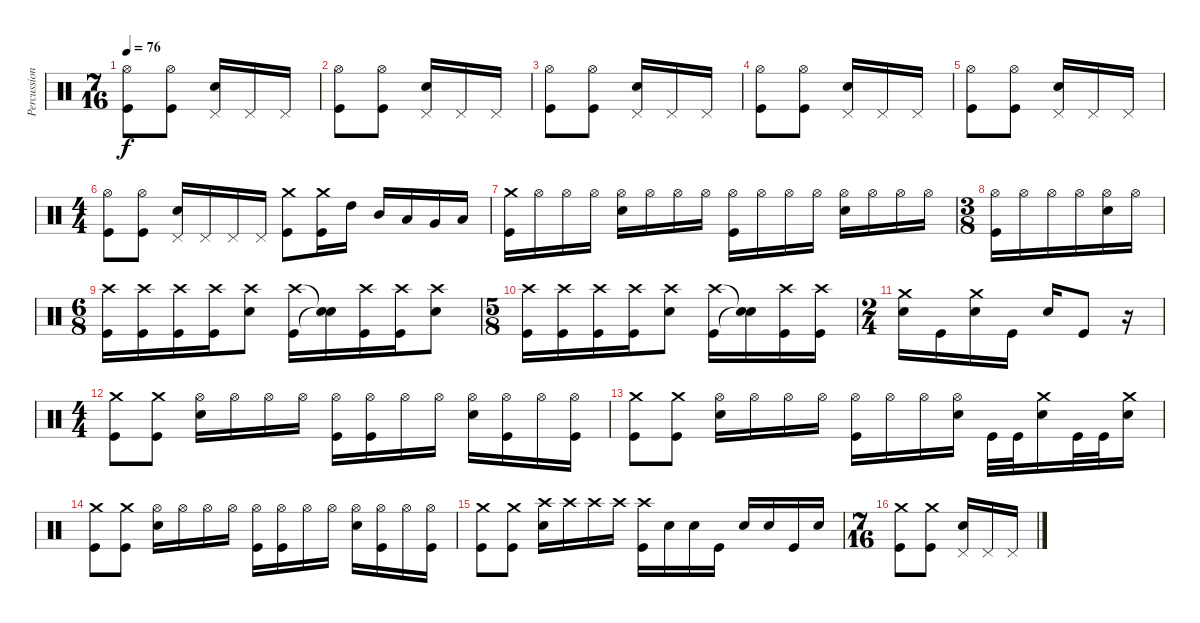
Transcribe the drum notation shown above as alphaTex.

\track ("Percussion" "Percussion") {instrument percussion}
\staff {score}
\articulation defaults
\ts (7 16)
\tempo 76
\clef neutral
\ks c
("Hi-Hat (open)" "Kick (hit)").8{dy f} ("Hi-Hat (open)" "Kick (hit)").8 ("Pedal Hi-Hat (hit)" "Snare (hit) 2").16 "Pedal Hi-Hat (hit)".16 "Pedal Hi-Hat (hit)".16 |
("Hi-Hat (open)" "Kick (hit)").8 ("Hi-Hat (open)" "Kick (hit)").8 ("Pedal Hi-Hat (hit)" "Snare (hit) 2").16 "Pedal Hi-Hat (hit)".16 "Pedal Hi-Hat (hit)".16 |
("Hi-Hat (open)" "Kick (hit)").8 ("Hi-Hat (open)" "Kick (hit)").8 ("Pedal Hi-Hat (hit)" "Snare (hit) 2").16 "Pedal Hi-Hat (hit)".16 "Pedal Hi-Hat (hit)".16 |
("Hi-Hat (open)" "Kick (hit)").8 ("Hi-Hat (open)" "Kick (hit)").8 ("Pedal Hi-Hat (hit)" "Snare (hit) 2").16 "Pedal Hi-Hat (hit)".16 "Pedal Hi-Hat (hit)".16 |
("Hi-Hat (open)" "Kick (hit)").8 ("Hi-Hat (open)" "Kick (hit)").8 ("Pedal Hi-Hat (hit)" "Snare (hit) 2").16 "Pedal Hi-Hat (hit)".16 "Pedal Hi-Hat (hit)".16 |
\ts (4 4)
("Hi-Hat (open)" "Kick (hit)").8 ("Hi-Hat (open)" "Kick (hit)").8 ("Pedal Hi-Hat (hit)" "Snare (hit) 2").16 "Pedal Hi-Hat (hit)".16 "Pedal Hi-Hat (hit)".16 "Pedal Hi-Hat (hit)".16 ("Crash medium (hit)" "Kick (hit)").8 ("Crash medium (hit)" "Kick (hit)").16 "High Tom (hit)".16 "Mid Tom (hit)".16 "Low Tom (hit)".16 "Very Low Tom (hit)".16 "Low Floor Tom (hit)".16 |
("Crash medium (hit)" "Kick (hit)").16 "Hi-Hat (open)".16 "Hi-Hat (open)".16 "Hi-Hat (open)".16 ("Hi-Hat (open)" "Snare (hit) 2").16 "Hi-Hat (open)".16 "Hi-Hat (open)".16 "Hi-Hat (open)".16 ("Hi-Hat (open)" "Kick (hit)").16 "Hi-Hat (open)".16 "Hi-Hat (open)".16 "Hi-Hat (open)".16 ("Hi-Hat (open)" "Snare (hit) 2").16 "Hi-Hat (open)".16 "Hi-Hat (open)".16 "Hi-Hat (open)".16 |
\ts (3 8)
("Hi-Hat (open)" "Kick (hit)").16 "Hi-Hat (open)".16 "Hi-Hat (open)".16 "Hi-Hat (open)".16 ("Hi-Hat (open)" "Snare (hit) 2").16 "Hi-Hat (open)".16 |
\ts (6 8)
("Crash high (hit)" "Kick (hit)").16 ("Crash high (hit)" "Kick (hit)").16 ("Crash high (hit)" "Kick (hit)").16 ("Crash high (hit)" "Kick (hit)").16 ("Crash high (hit)" "Snare (hit) 2").8 ("Crash high (hit)" "Kick (hit)").16 ("Snare (hit)"{t} "Snare (hit)"{t}).16 ("Crash high (hit)" "Kick (hit)").16 ("Crash high (hit)" "Kick (hit)").16 ("Crash high (hit)" "Snare (hit) 2").8 |
\ts (5 8)
("Crash high (hit)" "Kick (hit)").16 ("Crash high (hit)" "Kick (hit)").16 ("Crash high (hit)" "Kick (hit)").16 ("Crash high (hit)" "Kick (hit)").16 ("Crash high (hit)" "Snare (hit) 2").8 ("Crash high (hit)" "Kick (hit)").16 ("Snare (hit)"{t} "Snare (hit)"{t}).16 ("Crash high (hit)" "Kick (hit)").16 ("Crash high (hit)" "Kick (hit)").16 |
\ts (2 4)
("Crash medium (hit)" "Snare (hit) 2").16 "Kick (hit)".16 ("Crash medium (hit)" "Snare (hit) 2").16 "Kick (hit)".16 "Snare (hit) 2".16 "Kick (hit)".8 r.16 |
\ts (4 4)
("Crash medium (hit)" "Kick (hit)").8 ("Crash medium (hit)" "Kick (hit)").8 ("Hi-Hat (open)" "Snare (hit) 2").16 "Hi-Hat (open)".16 "Hi-Hat (open)".16 "Hi-Hat (open)".16 ("Hi-Hat (open)" "Kick (hit)").16 ("Hi-Hat (open)" "Kick (hit)").16 "Hi-Hat (open)".16 "Hi-Hat (open)".16 ("Hi-Hat (open)" "Snare (hit) 2").16 ("Hi-Hat (open)" "Kick (hit)").16 "Hi-Hat (open)".16 ("Hi-Hat (open)" "Kick (hit)").16 |
("Crash medium (hit)" "Kick (hit)").8 ("Crash medium (hit)" "Kick (hit)").8 ("Hi-Hat (open)" "Snare (hit) 2").16 "Hi-Hat (open)".16 "Hi-Hat (open)".16 "Hi-Hat (open)".16 ("Hi-Hat (open)" "Kick (hit)").16 "Hi-Hat (open)".16 "Hi-Hat (open)".16 ("Hi-Hat (open)" "Snare (hit) 2").16 "Kick (hit)".32 "Kick (hit)".32 ("Crash medium (hit)" "Snare (hit) 2").16 "Kick (hit)".32 "Kick (hit)".32 ("Crash medium (hit)" "Snare (hit) 2").16 |
("Crash medium (hit)" "Kick (hit)").8 ("Crash medium (hit)" "Kick (hit)").8 ("Hi-Hat (open)" "Snare (hit) 2").16 "Hi-Hat (open)".16 "Hi-Hat (open)".16 "Hi-Hat (open)".16 ("Hi-Hat (open)" "Kick (hit)").16 ("Hi-Hat (open)" "Kick (hit)").16 "Hi-Hat (open)".16 "Hi-Hat (open)".16 ("Hi-Hat (open)" "Snare (hit) 2").16 ("Hi-Hat (open)" "Kick (hit)").16 "Hi-Hat (open)".16 ("Hi-Hat (open)" "Kick (hit)").16 |
("Crash medium (hit)" "Kick (hit)").8 ("Crash medium (hit)" "Kick (hit)").8 ("Crash high (hit)" "Snare (hit) 2").16 "Crash high (hit)".16 "Crash high (hit)".16 "Crash high (hit)".16 ("Crash high (hit)" "Kick (hit)").16 "Snare (hit) 2".16 "Snare (hit) 2".16 "Kick (hit)".16 "Snare (hit) 2".16 "Snare (hit) 2".16 "Kick (hit)".16 "Snare (hit) 2".16 |
\ts (7 16)
("Crash medium (hit)" "Kick (hit)").8 ("Crash medium (hit)" "Kick (hit)").8 ("Pedal Hi-Hat (hit)" "Snare (hit) 2").16 "Pedal Hi-Hat (hit)".16 "Pedal Hi-Hat (hit)".16
